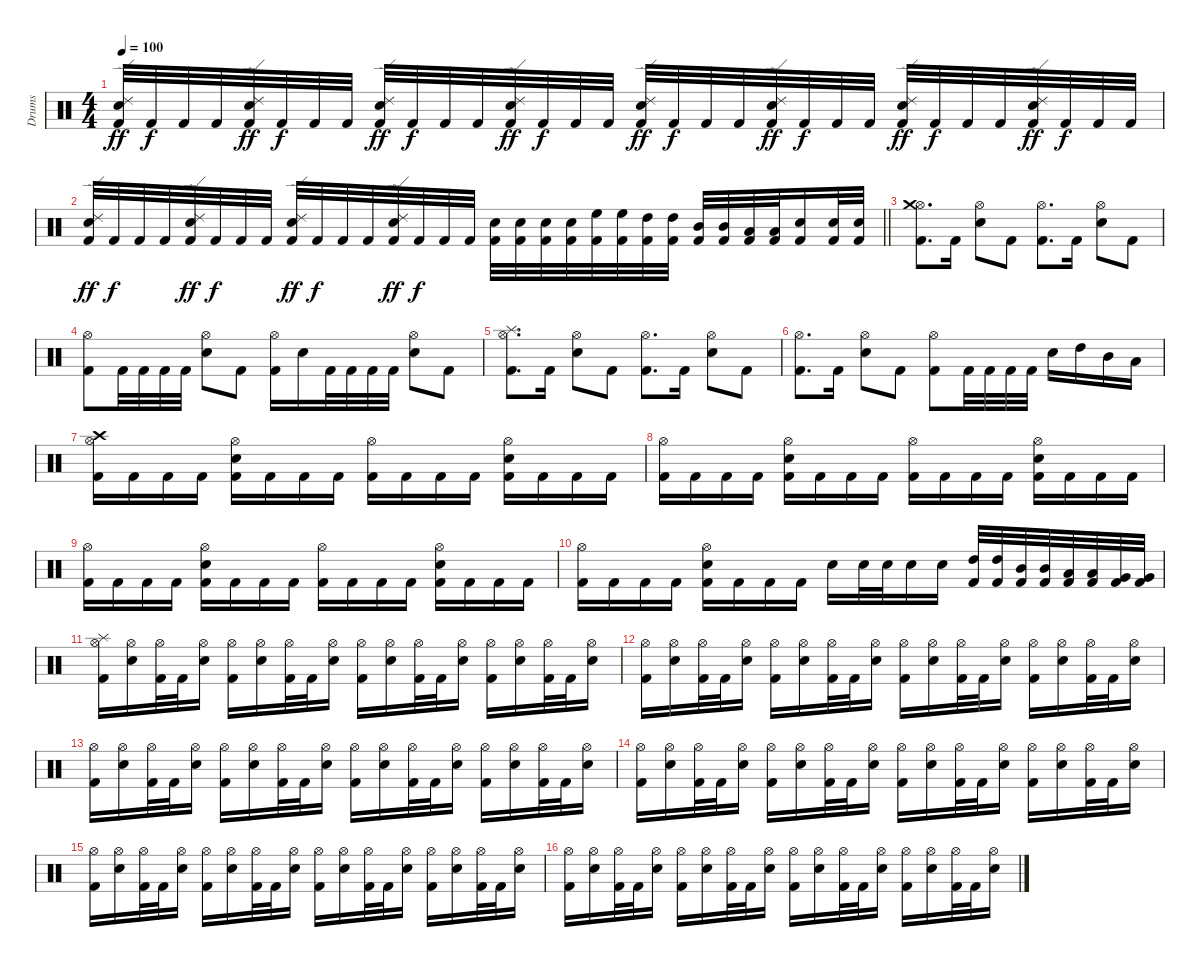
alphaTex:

\track ("Drums" "Drums") {instrument percussion}
\staff {score}
\articulation defaults
\ts (4 4)
\tempo 100
\clef neutral
\ks c
("Kick (hit) 2" "Electric Snare (hit)" "Ride (edge) 2").32{dy ff} "Kick (hit) 2".32{dy f} "Kick (hit) 2".32 "Kick (hit) 2".32 ("Kick (hit) 2" "Electric Snare (hit)" "Ride (edge) 2").32{dy ff} "Kick (hit) 2".32{dy f} "Kick (hit) 2".32 "Kick (hit) 2".32 ("Kick (hit) 2" "Electric Snare (hit)" "Ride (edge) 2").32{dy ff} "Kick (hit) 2".32{dy f} "Kick (hit) 2".32 "Kick (hit) 2".32 ("Kick (hit) 2" "Electric Snare (hit)" "Ride (edge) 2").32{dy ff} "Kick (hit) 2".32{dy f} "Kick (hit) 2".32 "Kick (hit) 2".32 ("Kick (hit) 2" "Electric Snare (hit)" "Ride (edge) 2").32{dy ff} "Kick (hit) 2".32{dy f} "Kick (hit) 2".32 "Kick (hit) 2".32 ("Kick (hit) 2" "Electric Snare (hit)" "Ride (edge) 2").32{dy ff} "Kick (hit) 2".32{dy f} "Kick (hit) 2".32 "Kick (hit) 2".32 ("Kick (hit) 2" "Electric Snare (hit)" "Ride (edge) 2").32{dy ff} "Kick (hit) 2".32{dy f} "Kick (hit) 2".32 "Kick (hit) 2".32 ("Kick (hit) 2" "Electric Snare (hit)" "Ride (edge) 2").32{dy ff} "Kick (hit) 2".32{dy f} "Kick (hit) 2".32 "Kick (hit) 2".32 |
\barLineRight lightlight
("Kick (hit) 2" "Electric Snare (hit)" "Ride (edge) 2").32{dy ff} "Kick (hit) 2".32{dy f} "Kick (hit) 2".32 "Kick (hit) 2".32 ("Kick (hit) 2" "Electric Snare (hit)" "Ride (edge) 2").32{dy ff} "Kick (hit) 2".32{dy f} "Kick (hit) 2".32 "Kick (hit) 2".32 ("Kick (hit) 2" "Electric Snare (hit)" "Ride (edge) 2").32{dy ff} "Kick (hit) 2".32{dy f} "Kick (hit) 2".32 "Kick (hit) 2".32 ("Kick (hit) 2" "Electric Snare (hit)" "Ride (edge) 2").32{dy ff} "Kick (hit) 2".32{dy f} "Kick (hit) 2".32 "Kick (hit) 2".32 ("Kick (hit) 2" "Electric Snare (hit)").32 ("Kick (hit) 2" "Electric Snare (hit)").32 ("Kick (hit) 2" "Electric Snare (hit)").32 ("Kick (hit) 2" "Electric Snare (hit)").32 ("Kick (hit) 2" "High Floor Tom (hit)").32 ("Kick (hit) 2" "High Floor Tom (hit)").32 ("Kick (hit) 2" "High Tom (hit)").32 ("Kick (hit) 2" "High Tom (hit)").32 ("Kick (hit) 2" "Mid Tom (hit)").32 ("Kick (hit) 2" "Mid Tom (hit)").32 ("Kick (hit) 2" "Low Tom (hit)").32 ("Kick (hit) 2" "Low Tom (hit)").32 ("Kick (hit) 2" "Electric Snare (hit)").16 ("Kick (hit) 2" "Electric Snare (hit)").32 ("Kick (hit) 2" "Electric Snare (hit)").32 |
\section ("" "")
("Kick (hit) 2" "Hi-Hat (open)" "Crash medium (hit)").8{d} "Kick (hit) 2".16 ("Electric Snare (hit)" "Hi-Hat (open)").8 "Kick (hit) 2".8 ("Kick (hit) 2" "Hi-Hat (open)").8{d} "Kick (hit) 2".16 ("Electric Snare (hit)" "Hi-Hat (open)").8 "Kick (hit) 2".8 |
("Kick (hit) 2" "Hi-Hat (open)").8 "Kick (hit) 2".32 "Kick (hit) 2".32 "Kick (hit) 2".32 "Kick (hit) 2".32 ("Electric Snare (hit)" "Hi-Hat (open)").8 "Kick (hit) 2".8 ("Kick (hit) 2" "Hi-Hat (open)").16 "Electric Snare (hit)".16 "Kick (hit) 2".32 "Kick (hit) 2".32 "Kick (hit) 2".32 "Kick (hit) 2".32 ("Electric Snare (hit)" "Hi-Hat (open)").8 "Kick (hit) 2".8 |
("Kick (hit) 2" "Hi-Hat (open)" "Splash (hit)").8{d} "Kick (hit) 2".16 ("Electric Snare (hit)" "Hi-Hat (open)").8 "Kick (hit) 2".8 ("Kick (hit) 2" "Hi-Hat (open)").8{d} "Kick (hit) 2".16 ("Electric Snare (hit)" "Hi-Hat (open)").8 "Kick (hit) 2".8 |
("Kick (hit) 2" "Hi-Hat (open)").8{d} "Kick (hit) 2".16 ("Electric Snare (hit)" "Hi-Hat (open)").8 "Kick (hit) 2".8 ("Kick (hit) 2" "Hi-Hat (open)").8 "Kick (hit) 2".32 "Kick (hit) 2".32 "Kick (hit) 2".32 "Kick (hit) 2".32 "Electric Snare (hit)".16 "High Tom (hit)".16 "Mid Tom (hit)".16 "Low Tom (hit)".16 |
("Kick (hit) 2" "Hi-Hat (open)" "Crash high (hit)").16 "Kick (hit) 2".16 "Kick (hit) 2".16 "Kick (hit) 2".16 ("Kick (hit) 2" "Electric Snare (hit)" "Hi-Hat (open)").16 "Kick (hit) 2".16 "Kick (hit) 2".16 "Kick (hit) 2".16 ("Kick (hit) 2" "Hi-Hat (open)").16 "Kick (hit) 2".16 "Kick (hit) 2".16 "Kick (hit) 2".16 ("Kick (hit) 2" "Electric Snare (hit)" "Hi-Hat (open)").16 "Kick (hit) 2".16 "Kick (hit) 2".16 "Kick (hit) 2".16 |
("Kick (hit) 2" "Hi-Hat (open)").16 "Kick (hit) 2".16 "Kick (hit) 2".16 "Kick (hit) 2".16 ("Kick (hit) 2" "Electric Snare (hit)" "Hi-Hat (open)").16 "Kick (hit) 2".16 "Kick (hit) 2".16 "Kick (hit) 2".16 ("Kick (hit) 2" "Hi-Hat (open)").16 "Kick (hit) 2".16 "Kick (hit) 2".16 "Kick (hit) 2".16 ("Kick (hit) 2" "Electric Snare (hit)" "Hi-Hat (open)").16 "Kick (hit) 2".16 "Kick (hit) 2".16 "Kick (hit) 2".16 |
("Kick (hit) 2" "Hi-Hat (open)").16 "Kick (hit) 2".16 "Kick (hit) 2".16 "Kick (hit) 2".16 ("Kick (hit) 2" "Electric Snare (hit)" "Hi-Hat (open)").16 "Kick (hit) 2".16 "Kick (hit) 2".16 "Kick (hit) 2".16 ("Kick (hit) 2" "Hi-Hat (open)").16 "Kick (hit) 2".16 "Kick (hit) 2".16 "Kick (hit) 2".16 ("Kick (hit) 2" "Electric Snare (hit)" "Hi-Hat (open)").16 "Kick (hit) 2".16 "Kick (hit) 2".16 "Kick (hit) 2".16 |
("Kick (hit) 2" "Hi-Hat (open)").16 "Kick (hit) 2".16 "Kick (hit) 2".16 "Kick (hit) 2".16 ("Kick (hit) 2" "Electric Snare (hit)" "Hi-Hat (open)").16 "Kick (hit) 2".16 "Kick (hit) 2".16 "Kick (hit) 2".16 "Electric Snare (hit)".16 "Electric Snare (hit)".32 "Electric Snare (hit)".32 "Electric Snare (hit)".16 "Electric Snare (hit)".16 ("Kick (hit) 2" "High Tom (hit)").32 ("Kick (hit) 2" "High Tom (hit)").32 ("Kick (hit) 2" "Mid Tom (hit)").32 ("Kick (hit) 2" "Mid Tom (hit)").32 ("Kick (hit) 2" "Low Tom (hit)").32 ("Kick (hit) 2" "Low Tom (hit)").32 ("Kick (hit) 2" "Very Low Tom (hit)").32 ("Kick (hit) 2" "Very Low Tom (hit)").32 |
\section ("" "")
("Kick (hit) 2" "Hi-Hat (open)" "Splash (hit)").16 ("Electric Snare (hit)" "Hi-Hat (open)").16 ("Kick (hit) 2" "Hi-Hat (open)").32 "Kick (hit) 2".32 ("Electric Snare (hit)" "Hi-Hat (open)").16 ("Kick (hit) 2" "Hi-Hat (open)").16 ("Electric Snare (hit)" "Hi-Hat (open)").16 ("Kick (hit) 2" "Hi-Hat (open)").32 "Kick (hit) 2".32 ("Electric Snare (hit)" "Hi-Hat (open)").16 ("Kick (hit) 2" "Hi-Hat (open)").16 ("Electric Snare (hit)" "Hi-Hat (open)").16 ("Kick (hit) 2" "Hi-Hat (open)").32 "Kick (hit) 2".32 ("Electric Snare (hit)" "Hi-Hat (open)").16 ("Kick (hit) 2" "Hi-Hat (open)").16 ("Electric Snare (hit)" "Hi-Hat (open)").16 ("Kick (hit) 2" "Hi-Hat (open)").32 "Kick (hit) 2".32 ("Electric Snare (hit)" "Hi-Hat (open)").16 |
("Kick (hit) 2" "Hi-Hat (open)").16 ("Electric Snare (hit)" "Hi-Hat (open)").16 ("Kick (hit) 2" "Hi-Hat (open)").32 "Kick (hit) 2".32 ("Electric Snare (hit)" "Hi-Hat (open)").16 ("Kick (hit) 2" "Hi-Hat (open)").16 ("Electric Snare (hit)" "Hi-Hat (open)").16 ("Kick (hit) 2" "Hi-Hat (open)").32 "Kick (hit) 2".32 ("Electric Snare (hit)" "Hi-Hat (open)").16 ("Kick (hit) 2" "Hi-Hat (open)").16 ("Electric Snare (hit)" "Hi-Hat (open)").16 ("Kick (hit) 2" "Hi-Hat (open)").32 "Kick (hit) 2".32 ("Electric Snare (hit)" "Hi-Hat (open)").16 ("Kick (hit) 2" "Hi-Hat (open)").16 ("Electric Snare (hit)" "Hi-Hat (open)").16 ("Kick (hit) 2" "Hi-Hat (open)").32 "Kick (hit) 2".32 ("Electric Snare (hit)" "Hi-Hat (open)").16 |
("Kick (hit) 2" "Hi-Hat (open)").16 ("Electric Snare (hit)" "Hi-Hat (open)").16 ("Kick (hit) 2" "Hi-Hat (open)").32 "Kick (hit) 2".32 ("Electric Snare (hit)" "Hi-Hat (open)").16 ("Kick (hit) 2" "Hi-Hat (open)").16 ("Electric Snare (hit)" "Hi-Hat (open)").16 ("Kick (hit) 2" "Hi-Hat (open)").32 "Kick (hit) 2".32 ("Electric Snare (hit)" "Hi-Hat (open)").16 ("Kick (hit) 2" "Hi-Hat (open)").16 ("Electric Snare (hit)" "Hi-Hat (open)").16 ("Kick (hit) 2" "Hi-Hat (open)").32 "Kick (hit) 2".32 ("Electric Snare (hit)" "Hi-Hat (open)").16 ("Kick (hit) 2" "Hi-Hat (open)").16 ("Electric Snare (hit)" "Hi-Hat (open)").16 ("Kick (hit) 2" "Hi-Hat (open)").32 "Kick (hit) 2".32 ("Electric Snare (hit)" "Hi-Hat (open)").16 |
("Kick (hit) 2" "Hi-Hat (open)").16 ("Electric Snare (hit)" "Hi-Hat (open)").16 ("Kick (hit) 2" "Hi-Hat (open)").32 "Kick (hit) 2".32 ("Electric Snare (hit)" "Hi-Hat (open)").16 ("Kick (hit) 2" "Hi-Hat (open)").16 ("Electric Snare (hit)" "Hi-Hat (open)").16 ("Kick (hit) 2" "Hi-Hat (open)").32 "Kick (hit) 2".32 ("Electric Snare (hit)" "Hi-Hat (open)").16 ("Kick (hit) 2" "Hi-Hat (open)").16 ("Electric Snare (hit)" "Hi-Hat (open)").16 ("Kick (hit) 2" "Hi-Hat (open)").32 "Kick (hit) 2".32 ("Electric Snare (hit)" "Hi-Hat (open)").16 ("Kick (hit) 2" "Hi-Hat (open)").16 ("Electric Snare (hit)" "Hi-Hat (open)").16 ("Kick (hit) 2" "Hi-Hat (open)").32 "Kick (hit) 2".32 ("Electric Snare (hit)" "Hi-Hat (open)").16 |
("Kick (hit) 2" "Hi-Hat (open)").16 ("Electric Snare (hit)" "Hi-Hat (open)").16 ("Kick (hit) 2" "Hi-Hat (open)").32 "Kick (hit) 2".32 ("Electric Snare (hit)" "Hi-Hat (open)").16 ("Kick (hit) 2" "Hi-Hat (open)").16 ("Electric Snare (hit)" "Hi-Hat (open)").16 ("Kick (hit) 2" "Hi-Hat (open)").32 "Kick (hit) 2".32 ("Electric Snare (hit)" "Hi-Hat (open)").16 ("Kick (hit) 2" "Hi-Hat (open)").16 ("Electric Snare (hit)" "Hi-Hat (open)").16 ("Kick (hit) 2" "Hi-Hat (open)").32 "Kick (hit) 2".32 ("Electric Snare (hit)" "Hi-Hat (open)").16 ("Kick (hit) 2" "Hi-Hat (open)").16 ("Electric Snare (hit)" "Hi-Hat (open)").16 ("Kick (hit) 2" "Hi-Hat (open)").32 "Kick (hit) 2".32 ("Electric Snare (hit)" "Hi-Hat (open)").16 |
("Kick (hit) 2" "Hi-Hat (open)").16 ("Electric Snare (hit)" "Hi-Hat (open)").16 ("Kick (hit) 2" "Hi-Hat (open)").32 "Kick (hit) 2".32 ("Electric Snare (hit)" "Hi-Hat (open)").16 ("Kick (hit) 2" "Hi-Hat (open)").16 ("Electric Snare (hit)" "Hi-Hat (open)").16 ("Kick (hit) 2" "Hi-Hat (open)").32 "Kick (hit) 2".32 ("Electric Snare (hit)" "Hi-Hat (open)").16 ("Kick (hit) 2" "Hi-Hat (open)").16 ("Electric Snare (hit)" "Hi-Hat (open)").16 ("Kick (hit) 2" "Hi-Hat (open)").32 "Kick (hit) 2".32 ("Electric Snare (hit)" "Hi-Hat (open)").16 ("Kick (hit) 2" "Hi-Hat (open)").16 ("Electric Snare (hit)" "Hi-Hat (open)").16 ("Kick (hit) 2" "Hi-Hat (open)").32 "Kick (hit) 2".32 ("Electric Snare (hit)" "Hi-Hat (open)").16
